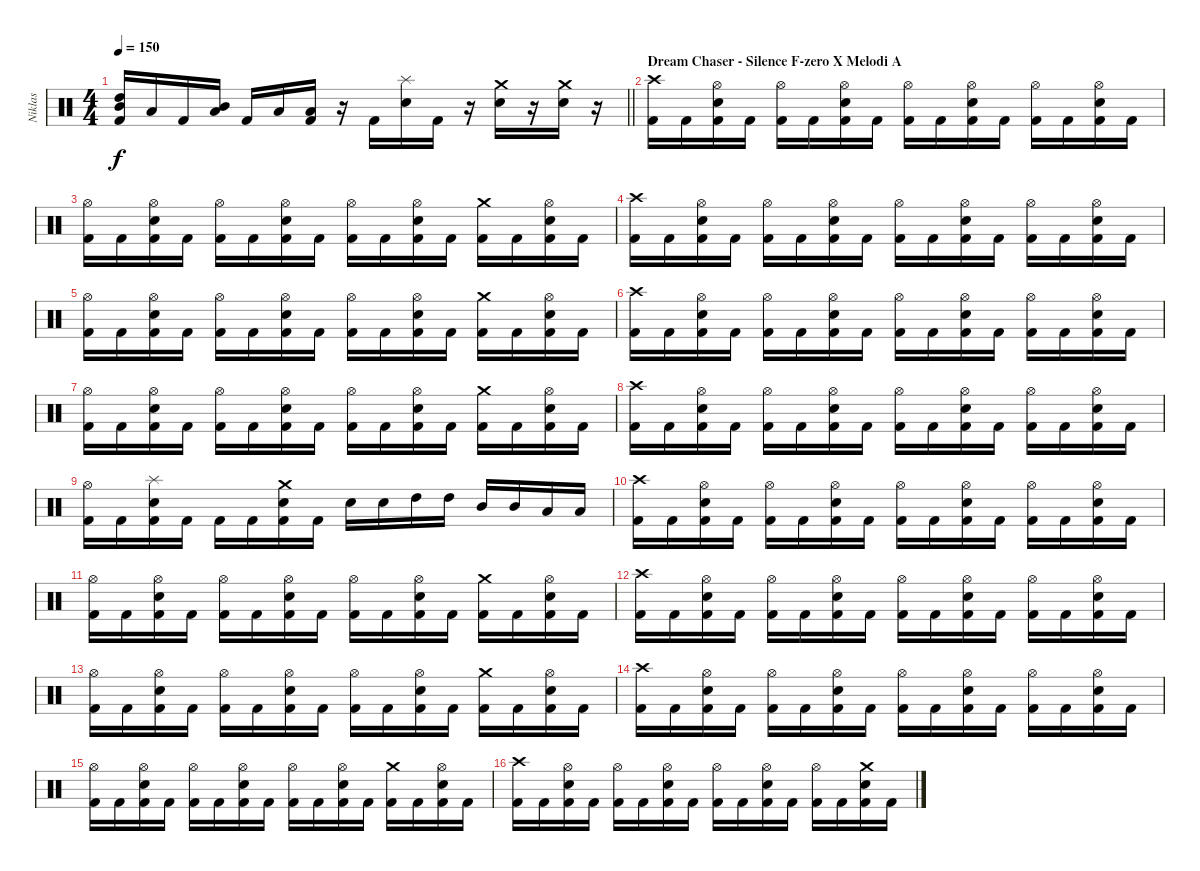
\track ("Niklas" "Niklas") {instrument percussion}
\staff {score}
\articulation defaults
\ts (4 4)
\tempo 150
\clef neutral
\barLineRight lightlight
\ks c
("High Tom (hit)" "Mid Tom (hit)" "Kick (hit) 2").16{dy f} "Low Tom (hit)".16 "Kick (hit) 2".16 ("Mid Tom (hit)" "Low Tom (hit)").16 "Kick (hit) 2".16 "Low Tom (hit)".16 ("Low Tom (hit)" "Kick (hit) 2").16 r.16 "Kick (hit) 2".16 ("Splash (hit)" "Electric Snare (hit)").16 "Kick (hit) 2".16 r.16 ("Crash medium (hit)" "Electric Snare (hit)").16 r.16 ("Crash medium (hit)" "Electric Snare (hit)").16 r.16 |
\section ("" "Dream Chaser - Silence F-zero X Melodi A")
("Crash high (hit)" "Kick (hit) 2").16 "Kick (hit) 2".16 ("Hi-Hat (open)" "Electric Snare (hit)" "Kick (hit) 2").16 "Kick (hit) 2".16 ("Hi-Hat (open)" "Kick (hit) 2").16 "Kick (hit) 2".16 ("Hi-Hat (open)" "Electric Snare (hit)" "Kick (hit) 2").16 "Kick (hit) 2".16 ("Hi-Hat (open)" "Kick (hit) 2").16 "Kick (hit) 2".16 ("Hi-Hat (open)" "Electric Snare (hit)" "Kick (hit) 2").16 "Kick (hit) 2".16 ("Hi-Hat (open)" "Kick (hit) 2").16 "Kick (hit) 2".16 ("Hi-Hat (open)" "Electric Snare (hit)" "Kick (hit) 2").16 "Kick (hit) 2".16 |
("Hi-Hat (open)" "Kick (hit) 2").16 "Kick (hit) 2".16 ("Hi-Hat (open)" "Electric Snare (hit)" "Kick (hit) 2").16 "Kick (hit) 2".16 ("Hi-Hat (open)" "Kick (hit) 2").16 "Kick (hit) 2".16 ("Hi-Hat (open)" "Electric Snare (hit)" "Kick (hit) 2").16 "Kick (hit) 2".16 ("Hi-Hat (open)" "Kick (hit) 2").16 "Kick (hit) 2".16 ("Hi-Hat (open)" "Electric Snare (hit)" "Kick (hit) 2").16 "Kick (hit) 2".16 ("Crash medium (hit)" "Kick (hit) 2").16 "Kick (hit) 2".16 ("Hi-Hat (open)" "Electric Snare (hit)" "Kick (hit) 2").16 "Kick (hit) 2".16 |
("Crash high (hit)" "Kick (hit) 2").16 "Kick (hit) 2".16 ("Hi-Hat (open)" "Electric Snare (hit)" "Kick (hit) 2").16 "Kick (hit) 2".16 ("Hi-Hat (open)" "Kick (hit) 2").16 "Kick (hit) 2".16 ("Hi-Hat (open)" "Electric Snare (hit)" "Kick (hit) 2").16 "Kick (hit) 2".16 ("Hi-Hat (open)" "Kick (hit) 2").16 "Kick (hit) 2".16 ("Hi-Hat (open)" "Electric Snare (hit)" "Kick (hit) 2").16 "Kick (hit) 2".16 ("Hi-Hat (open)" "Kick (hit) 2").16 "Kick (hit) 2".16 ("Hi-Hat (open)" "Electric Snare (hit)" "Kick (hit) 2").16 "Kick (hit) 2".16 |
("Hi-Hat (open)" "Kick (hit) 2").16 "Kick (hit) 2".16 ("Hi-Hat (open)" "Electric Snare (hit)" "Kick (hit) 2").16 "Kick (hit) 2".16 ("Hi-Hat (open)" "Kick (hit) 2").16 "Kick (hit) 2".16 ("Hi-Hat (open)" "Electric Snare (hit)" "Kick (hit) 2").16 "Kick (hit) 2".16 ("Hi-Hat (open)" "Kick (hit) 2").16 "Kick (hit) 2".16 ("Hi-Hat (open)" "Electric Snare (hit)" "Kick (hit) 2").16 "Kick (hit) 2".16 ("Crash medium (hit)" "Kick (hit) 2").16 "Kick (hit) 2".16 ("Hi-Hat (open)" "Electric Snare (hit)" "Kick (hit) 2").16 "Kick (hit) 2".16 |
("Crash high (hit)" "Kick (hit) 2").16 "Kick (hit) 2".16 ("Hi-Hat (open)" "Electric Snare (hit)" "Kick (hit) 2").16 "Kick (hit) 2".16 ("Hi-Hat (open)" "Kick (hit) 2").16 "Kick (hit) 2".16 ("Hi-Hat (open)" "Electric Snare (hit)" "Kick (hit) 2").16 "Kick (hit) 2".16 ("Hi-Hat (open)" "Kick (hit) 2").16 "Kick (hit) 2".16 ("Hi-Hat (open)" "Electric Snare (hit)" "Kick (hit) 2").16 "Kick (hit) 2".16 ("Hi-Hat (open)" "Kick (hit) 2").16 "Kick (hit) 2".16 ("Hi-Hat (open)" "Electric Snare (hit)" "Kick (hit) 2").16 "Kick (hit) 2".16 |
("Hi-Hat (open)" "Kick (hit) 2").16 "Kick (hit) 2".16 ("Hi-Hat (open)" "Electric Snare (hit)" "Kick (hit) 2").16 "Kick (hit) 2".16 ("Hi-Hat (open)" "Kick (hit) 2").16 "Kick (hit) 2".16 ("Hi-Hat (open)" "Electric Snare (hit)" "Kick (hit) 2").16 "Kick (hit) 2".16 ("Hi-Hat (open)" "Kick (hit) 2").16 "Kick (hit) 2".16 ("Hi-Hat (open)" "Electric Snare (hit)" "Kick (hit) 2").16 "Kick (hit) 2".16 ("Crash medium (hit)" "Kick (hit) 2").16 "Kick (hit) 2".16 ("Hi-Hat (open)" "Electric Snare (hit)" "Kick (hit) 2").16 "Kick (hit) 2".16 |
("Crash high (hit)" "Kick (hit) 2").16 "Kick (hit) 2".16 ("Hi-Hat (open)" "Electric Snare (hit)" "Kick (hit) 2").16 "Kick (hit) 2".16 ("Hi-Hat (open)" "Kick (hit) 2").16 "Kick (hit) 2".16 ("Hi-Hat (open)" "Electric Snare (hit)" "Kick (hit) 2").16 "Kick (hit) 2".16 ("Hi-Hat (open)" "Kick (hit) 2").16 "Kick (hit) 2".16 ("Hi-Hat (open)" "Electric Snare (hit)" "Kick (hit) 2").16 "Kick (hit) 2".16 ("Hi-Hat (open)" "Kick (hit) 2").16 "Kick (hit) 2".16 ("Hi-Hat (open)" "Electric Snare (hit)" "Kick (hit) 2").16 "Kick (hit) 2".16 |
("Hi-Hat (open)" "Kick (hit) 2").16 "Kick (hit) 2".16 ("Splash (hit)" "Electric Snare (hit)" "Kick (hit) 2").16 "Kick (hit) 2".16 "Kick (hit) 2".16 "Kick (hit) 2".16 ("Crash medium (hit)" "Electric Snare (hit)" "Kick (hit) 2").16 "Kick (hit) 2".16 "Electric Snare (hit)".16 "Electric Snare (hit)".16 "High Tom (hit)".16 "High Tom (hit)".16 "Mid Tom (hit)".16 "Mid Tom (hit)".16 "Low Tom (hit)".16 "Low Tom (hit)".16 |
("Crash high (hit)" "Kick (hit) 2").16 "Kick (hit) 2".16 ("Hi-Hat (open)" "Electric Snare (hit)" "Kick (hit) 2").16 "Kick (hit) 2".16 ("Hi-Hat (open)" "Kick (hit) 2").16 "Kick (hit) 2".16 ("Hi-Hat (open)" "Electric Snare (hit)" "Kick (hit) 2").16 "Kick (hit) 2".16 ("Hi-Hat (open)" "Kick (hit) 2").16 "Kick (hit) 2".16 ("Hi-Hat (open)" "Electric Snare (hit)" "Kick (hit) 2").16 "Kick (hit) 2".16 ("Hi-Hat (open)" "Kick (hit) 2").16 "Kick (hit) 2".16 ("Hi-Hat (open)" "Electric Snare (hit)" "Kick (hit) 2").16 "Kick (hit) 2".16 |
("Hi-Hat (open)" "Kick (hit) 2").16 "Kick (hit) 2".16 ("Hi-Hat (open)" "Electric Snare (hit)" "Kick (hit) 2").16 "Kick (hit) 2".16 ("Hi-Hat (open)" "Kick (hit) 2").16 "Kick (hit) 2".16 ("Hi-Hat (open)" "Electric Snare (hit)" "Kick (hit) 2").16 "Kick (hit) 2".16 ("Hi-Hat (open)" "Kick (hit) 2").16 "Kick (hit) 2".16 ("Hi-Hat (open)" "Electric Snare (hit)" "Kick (hit) 2").16 "Kick (hit) 2".16 ("Crash medium (hit)" "Kick (hit) 2").16 "Kick (hit) 2".16 ("Hi-Hat (open)" "Electric Snare (hit)" "Kick (hit) 2").16 "Kick (hit) 2".16 |
("Crash high (hit)" "Kick (hit) 2").16 "Kick (hit) 2".16 ("Hi-Hat (open)" "Electric Snare (hit)" "Kick (hit) 2").16 "Kick (hit) 2".16 ("Hi-Hat (open)" "Kick (hit) 2").16 "Kick (hit) 2".16 ("Hi-Hat (open)" "Electric Snare (hit)" "Kick (hit) 2").16 "Kick (hit) 2".16 ("Hi-Hat (open)" "Kick (hit) 2").16 "Kick (hit) 2".16 ("Hi-Hat (open)" "Electric Snare (hit)" "Kick (hit) 2").16 "Kick (hit) 2".16 ("Hi-Hat (open)" "Kick (hit) 2").16 "Kick (hit) 2".16 ("Hi-Hat (open)" "Electric Snare (hit)" "Kick (hit) 2").16 "Kick (hit) 2".16 |
("Hi-Hat (open)" "Kick (hit) 2").16 "Kick (hit) 2".16 ("Hi-Hat (open)" "Electric Snare (hit)" "Kick (hit) 2").16 "Kick (hit) 2".16 ("Hi-Hat (open)" "Kick (hit) 2").16 "Kick (hit) 2".16 ("Hi-Hat (open)" "Electric Snare (hit)" "Kick (hit) 2").16 "Kick (hit) 2".16 ("Hi-Hat (open)" "Kick (hit) 2").16 "Kick (hit) 2".16 ("Hi-Hat (open)" "Electric Snare (hit)" "Kick (hit) 2").16 "Kick (hit) 2".16 ("Crash medium (hit)" "Kick (hit) 2").16 "Kick (hit) 2".16 ("Hi-Hat (open)" "Electric Snare (hit)" "Kick (hit) 2").16 "Kick (hit) 2".16 |
("Crash high (hit)" "Kick (hit) 2").16 "Kick (hit) 2".16 ("Hi-Hat (open)" "Electric Snare (hit)" "Kick (hit) 2").16 "Kick (hit) 2".16 ("Hi-Hat (open)" "Kick (hit) 2").16 "Kick (hit) 2".16 ("Hi-Hat (open)" "Electric Snare (hit)" "Kick (hit) 2").16 "Kick (hit) 2".16 ("Hi-Hat (open)" "Kick (hit) 2").16 "Kick (hit) 2".16 ("Hi-Hat (open)" "Electric Snare (hit)" "Kick (hit) 2").16 "Kick (hit) 2".16 ("Hi-Hat (open)" "Kick (hit) 2").16 "Kick (hit) 2".16 ("Hi-Hat (open)" "Electric Snare (hit)" "Kick (hit) 2").16 "Kick (hit) 2".16 |
("Hi-Hat (open)" "Kick (hit) 2").16 "Kick (hit) 2".16 ("Hi-Hat (open)" "Electric Snare (hit)" "Kick (hit) 2").16 "Kick (hit) 2".16 ("Hi-Hat (open)" "Kick (hit) 2").16 "Kick (hit) 2".16 ("Hi-Hat (open)" "Electric Snare (hit)" "Kick (hit) 2").16 "Kick (hit) 2".16 ("Hi-Hat (open)" "Kick (hit) 2").16 "Kick (hit) 2".16 ("Hi-Hat (open)" "Electric Snare (hit)" "Kick (hit) 2").16 "Kick (hit) 2".16 ("Crash medium (hit)" "Kick (hit) 2").16 "Kick (hit) 2".16 ("Hi-Hat (open)" "Electric Snare (hit)" "Kick (hit) 2").16 "Kick (hit) 2".16 |
("Crash high (hit)" "Kick (hit) 2").16 "Kick (hit) 2".16 ("Hi-Hat (open)" "Electric Snare (hit)" "Kick (hit) 2").16 "Kick (hit) 2".16 ("Hi-Hat (open)" "Kick (hit) 2").16 "Kick (hit) 2".16 ("Hi-Hat (open)" "Electric Snare (hit)" "Kick (hit) 2").16 "Kick (hit) 2".16 ("Hi-Hat (open)" "Kick (hit) 2").16 "Kick (hit) 2".16 ("Hi-Hat (open)" "Electric Snare (hit)" "Kick (hit) 2").16 "Kick (hit) 2".16 ("Hi-Hat (open)" "Kick (hit) 2").16 "Kick (hit) 2".16 ("Crash medium (hit)" "Electric Snare (hit)" "Kick (hit) 2").16 "Kick (hit) 2".16
